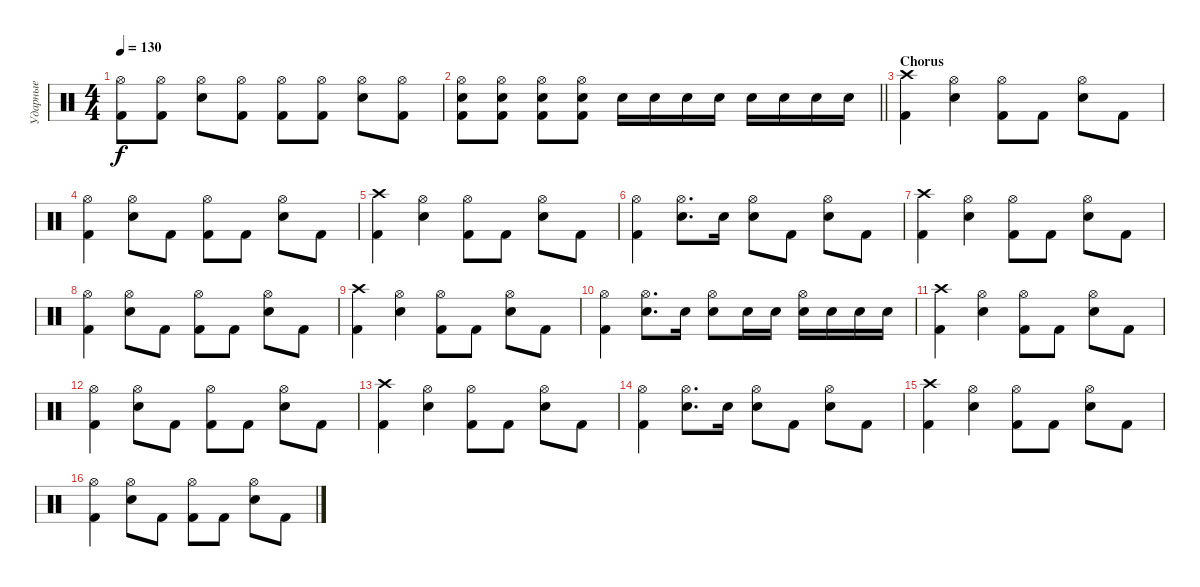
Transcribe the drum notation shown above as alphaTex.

\track ("Ударные" "Ударные") {instrument percussion}
\staff {score}
\articulation defaults
\ts (4 4)
\tempo 130
\clef neutral
\ks c
("Hi-Hat (open)" "Kick (hit) 2").8{dy f} ("Hi-Hat (open)" "Kick (hit) 2").8 ("Hi-Hat (open)" "Snare (hit) 2").8 ("Hi-Hat (open)" "Kick (hit) 2").8 ("Hi-Hat (open)" "Kick (hit) 2").8 ("Hi-Hat (open)" "Kick (hit) 2").8 ("Hi-Hat (open)" "Snare (hit) 2").8 ("Hi-Hat (open)" "Kick (hit) 2").8 |
\barLineRight lightlight
("Hi-Hat (open)" "Snare (hit) 2" "Kick (hit) 2").8 ("Hi-Hat (open)" "Snare (hit) 2" "Kick (hit) 2").8 ("Hi-Hat (open)" "Snare (hit) 2" "Kick (hit) 2").8 ("Hi-Hat (open)" "Snare (hit) 2" "Kick (hit) 2").8 "Snare (hit) 2".16 "Snare (hit) 2".16 "Snare (hit) 2".16 "Snare (hit) 2".16 "Snare (hit) 2".16 "Snare (hit) 2".16 "Snare (hit) 2".16 "Snare (hit) 2".16 |
\section ("" "Chorus")
("Crash high (hit)" "Kick (hit) 2").4 ("Hi-Hat (open)" "Snare (hit) 2").4 ("Hi-Hat (open)" "Kick (hit) 2").8 "Kick (hit) 2".8 ("Hi-Hat (open)" "Snare (hit) 2").8 "Kick (hit) 2".8 |
("Hi-Hat (open)" "Kick (hit) 2").4 ("Hi-Hat (open)" "Snare (hit) 2").8 "Kick (hit) 2".8 ("Hi-Hat (open)" "Kick (hit) 2").8 "Kick (hit) 2".8 ("Hi-Hat (open)" "Snare (hit) 2").8 "Kick (hit) 2".8 |
("Crash high (hit)" "Kick (hit) 2").4 ("Hi-Hat (open)" "Snare (hit) 2").4 ("Hi-Hat (open)" "Kick (hit) 2").8 "Kick (hit) 2".8 ("Hi-Hat (open)" "Snare (hit) 2").8 "Kick (hit) 2".8 |
("Hi-Hat (open)" "Kick (hit) 2").4 ("Hi-Hat (open)" "Snare (hit) 2").8{d} "Snare (hit) 2".16 ("Hi-Hat (open)" "Snare (hit) 2").8 "Kick (hit) 2".8 ("Hi-Hat (open)" "Snare (hit) 2").8 "Kick (hit) 2".8 |
("Crash high (hit)" "Kick (hit) 2").4 ("Hi-Hat (open)" "Snare (hit) 2").4 ("Hi-Hat (open)" "Kick (hit) 2").8 "Kick (hit) 2".8 ("Hi-Hat (open)" "Snare (hit) 2").8 "Kick (hit) 2".8 |
("Hi-Hat (open)" "Kick (hit) 2").4 ("Hi-Hat (open)" "Snare (hit) 2").8 "Kick (hit) 2".8 ("Hi-Hat (open)" "Kick (hit) 2").8 "Kick (hit) 2".8 ("Hi-Hat (open)" "Snare (hit) 2").8 "Kick (hit) 2".8 |
("Crash high (hit)" "Kick (hit) 2").4 ("Hi-Hat (open)" "Snare (hit) 2").4 ("Hi-Hat (open)" "Kick (hit) 2").8 "Kick (hit) 2".8 ("Hi-Hat (open)" "Snare (hit) 2").8 "Kick (hit) 2".8 |
("Hi-Hat (open)" "Kick (hit) 2").4 ("Hi-Hat (open)" "Snare (hit) 2").8{d} "Snare (hit) 2".16 ("Hi-Hat (open)" "Snare (hit) 2").8 "Snare (hit) 2".16 "Snare (hit) 2".16 ("Hi-Hat (open)" "Snare (hit) 2").16 "Snare (hit) 2".16 "Snare (hit) 2".16 "Snare (hit) 2".16 |
("Crash high (hit)" "Kick (hit) 2").4 ("Hi-Hat (open)" "Snare (hit) 2").4 ("Hi-Hat (open)" "Kick (hit) 2").8 "Kick (hit) 2".8 ("Hi-Hat (open)" "Snare (hit) 2").8 "Kick (hit) 2".8 |
("Hi-Hat (open)" "Kick (hit) 2").4 ("Hi-Hat (open)" "Snare (hit) 2").8 "Kick (hit) 2".8 ("Hi-Hat (open)" "Kick (hit) 2").8 "Kick (hit) 2".8 ("Hi-Hat (open)" "Snare (hit) 2").8 "Kick (hit) 2".8 |
("Crash high (hit)" "Kick (hit) 2").4 ("Hi-Hat (open)" "Snare (hit) 2").4 ("Hi-Hat (open)" "Kick (hit) 2").8 "Kick (hit) 2".8 ("Hi-Hat (open)" "Snare (hit) 2").8 "Kick (hit) 2".8 |
("Hi-Hat (open)" "Kick (hit) 2").4 ("Hi-Hat (open)" "Snare (hit) 2").8{d} "Snare (hit) 2".16 ("Hi-Hat (open)" "Snare (hit) 2").8 "Kick (hit) 2".8 ("Hi-Hat (open)" "Snare (hit) 2").8 "Kick (hit) 2".8 |
("Crash high (hit)" "Kick (hit) 2").4 ("Hi-Hat (open)" "Snare (hit) 2").4 ("Hi-Hat (open)" "Kick (hit) 2").8 "Kick (hit) 2".8 ("Hi-Hat (open)" "Snare (hit) 2").8 "Kick (hit) 2".8 |
("Hi-Hat (open)" "Kick (hit) 2").4 ("Hi-Hat (open)" "Snare (hit) 2").8 "Kick (hit) 2".8 ("Hi-Hat (open)" "Kick (hit) 2").8 "Kick (hit) 2".8 ("Hi-Hat (open)" "Snare (hit) 2").8 "Kick (hit) 2".8
